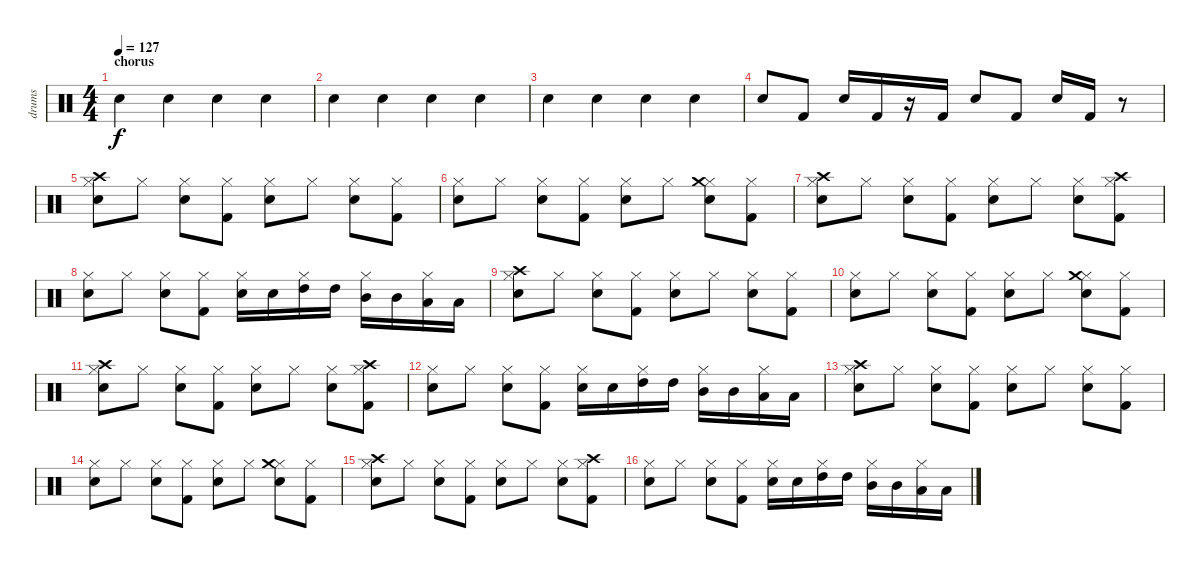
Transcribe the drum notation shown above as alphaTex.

\track ("drums" "drums") {instrument percussion}
\staff {score}
\articulation defaults
\ts (4 4)
\section ("" "chorus")
\tempo 127
\clef neutral
\ks c "Electric Snare (hit)".4{dy f} "Electric Snare (hit)".4 "Electric Snare (hit)".4 "Electric Snare (hit)".4
|
"Electric Snare (hit)".4 "Electric Snare (hit)".4 "Electric Snare (hit)".4 "Electric Snare (hit)".4 |
"Electric Snare (hit)".4 "Electric Snare (hit)".4 "Electric Snare (hit)".4 "Electric Snare (hit)".4 |
"Electric Snare (hit)".8 "Kick (hit) 2".8 "Electric Snare (hit)".16 "Kick (hit) 2".16 r.16 "Kick (hit) 2".16 "Electric Snare (hit)".8 "Kick (hit) 2".8 "Electric Snare (hit)".16 "Kick (hit) 2".16 r.8 |
("Electric Snare (hit)" "Hi-Hat (closed)" "Crash high (hit)").8 "Hi-Hat (closed)".8 ("Electric Snare (hit)" "Hi-Hat (closed)").8 ("Kick (hit) 2" "Hi-Hat (closed)").8 ("Electric Snare (hit)" "Hi-Hat (closed)").8 "Hi-Hat (closed)".8 ("Electric Snare (hit)" "Hi-Hat (closed)").8 ("Kick (hit) 2" "Hi-Hat (closed)").8 |
("Electric Snare (hit)" "Hi-Hat (closed)").8 "Hi-Hat (closed)".8 ("Electric Snare (hit)" "Hi-Hat (closed)").8 ("Kick (hit) 2" "Hi-Hat (closed)").8 ("Electric Snare (hit)" "Hi-Hat (closed)").8 "Hi-Hat (closed)".8 ("Electric Snare (hit)" "Hi-Hat (closed)" "Crash medium (hit)").8 ("Kick (hit) 2" "Hi-Hat (closed)").8 |
("Electric Snare (hit)" "Hi-Hat (closed)" "Crash high (hit)").8 "Hi-Hat (closed)".8 ("Electric Snare (hit)" "Hi-Hat (closed)").8 ("Kick (hit) 2" "Hi-Hat (closed)").8 ("Electric Snare (hit)" "Hi-Hat (closed)").8 "Hi-Hat (closed)".8 ("Electric Snare (hit)" "Hi-Hat (closed)").8 ("Kick (hit) 2" "Hi-Hat (closed)" "Crash high (hit)").8 |
("Electric Snare (hit)" "Hi-Hat (closed)").8 "Hi-Hat (closed)".8 ("Electric Snare (hit)" "Hi-Hat (closed)").8 ("Kick (hit) 2" "Hi-Hat (closed)").8 ("Electric Snare (hit)" "Hi-Hat (closed)").16 "Electric Snare (hit)".16 ("High Tom (hit)" "Hi-Hat (closed)").16 "High Tom (hit)".16 ("Mid Tom (hit)" "Hi-Hat (closed)").16 "Mid Tom (hit)".16 ("Low Tom (hit)" "Hi-Hat (closed)").16 "Low Tom (hit)".16 |
("Electric Snare (hit)" "Hi-Hat (closed)" "Crash high (hit)").8 "Hi-Hat (closed)".8 ("Electric Snare (hit)" "Hi-Hat (closed)").8 ("Kick (hit) 2" "Hi-Hat (closed)").8 ("Electric Snare (hit)" "Hi-Hat (closed)").8 "Hi-Hat (closed)".8 ("Electric Snare (hit)" "Hi-Hat (closed)").8 ("Kick (hit) 2" "Hi-Hat (closed)").8 |
("Electric Snare (hit)" "Hi-Hat (closed)").8 "Hi-Hat (closed)".8 ("Electric Snare (hit)" "Hi-Hat (closed)").8 ("Kick (hit) 2" "Hi-Hat (closed)").8 ("Electric Snare (hit)" "Hi-Hat (closed)").8 "Hi-Hat (closed)".8 ("Electric Snare (hit)" "Hi-Hat (closed)" "Crash medium (hit)").8 ("Kick (hit) 2" "Hi-Hat (closed)").8 |
("Electric Snare (hit)" "Hi-Hat (closed)" "Crash high (hit)").8 "Hi-Hat (closed)".8 ("Electric Snare (hit)" "Hi-Hat (closed)").8 ("Kick (hit) 2" "Hi-Hat (closed)").8 ("Electric Snare (hit)" "Hi-Hat (closed)").8 "Hi-Hat (closed)".8 ("Electric Snare (hit)" "Hi-Hat (closed)").8 ("Kick (hit) 2" "Hi-Hat (closed)" "Crash high (hit)").8 |
("Electric Snare (hit)" "Hi-Hat (closed)").8 "Hi-Hat (closed)".8 ("Electric Snare (hit)" "Hi-Hat (closed)").8 ("Kick (hit) 2" "Hi-Hat (closed)").8 ("Electric Snare (hit)" "Hi-Hat (closed)").16 "Electric Snare (hit)".16 ("High Tom (hit)" "Hi-Hat (closed)").16 "High Tom (hit)".16 ("Mid Tom (hit)" "Hi-Hat (closed)").16 "Mid Tom (hit)".16 ("Low Tom (hit)" "Hi-Hat (closed)").16 "Low Tom (hit)".16 |
("Electric Snare (hit)" "Hi-Hat (closed)" "Crash high (hit)").8 "Hi-Hat (closed)".8 ("Electric Snare (hit)" "Hi-Hat (closed)").8 ("Kick (hit) 2" "Hi-Hat (closed)").8 ("Electric Snare (hit)" "Hi-Hat (closed)").8 "Hi-Hat (closed)".8 ("Electric Snare (hit)" "Hi-Hat (closed)").8 ("Kick (hit) 2" "Hi-Hat (closed)").8 |
("Electric Snare (hit)" "Hi-Hat (closed)").8 "Hi-Hat (closed)".8 ("Electric Snare (hit)" "Hi-Hat (closed)").8 ("Kick (hit) 2" "Hi-Hat (closed)").8 ("Electric Snare (hit)" "Hi-Hat (closed)").8 "Hi-Hat (closed)".8 ("Electric Snare (hit)" "Hi-Hat (closed)" "Crash medium (hit)").8 ("Kick (hit) 2" "Hi-Hat (closed)").8 |
("Electric Snare (hit)" "Hi-Hat (closed)" "Crash high (hit)").8 "Hi-Hat (closed)".8 ("Electric Snare (hit)" "Hi-Hat (closed)").8 ("Kick (hit) 2" "Hi-Hat (closed)").8 ("Electric Snare (hit)" "Hi-Hat (closed)").8 "Hi-Hat (closed)".8 ("Electric Snare (hit)" "Hi-Hat (closed)").8 ("Kick (hit) 2" "Hi-Hat (closed)" "Crash high (hit)").8 |
("Electric Snare (hit)" "Hi-Hat (closed)").8 "Hi-Hat (closed)".8 ("Electric Snare (hit)" "Hi-Hat (closed)").8 ("Kick (hit) 2" "Hi-Hat (closed)").8 ("Electric Snare (hit)" "Hi-Hat (closed)").16 "Electric Snare (hit)".16 ("High Tom (hit)" "Hi-Hat (closed)").16 "High Tom (hit)".16 ("Mid Tom (hit)" "Hi-Hat (closed)").16 "Mid Tom (hit)".16 ("Low Tom (hit)" "Hi-Hat (closed)").16 "Low Tom (hit)".16
